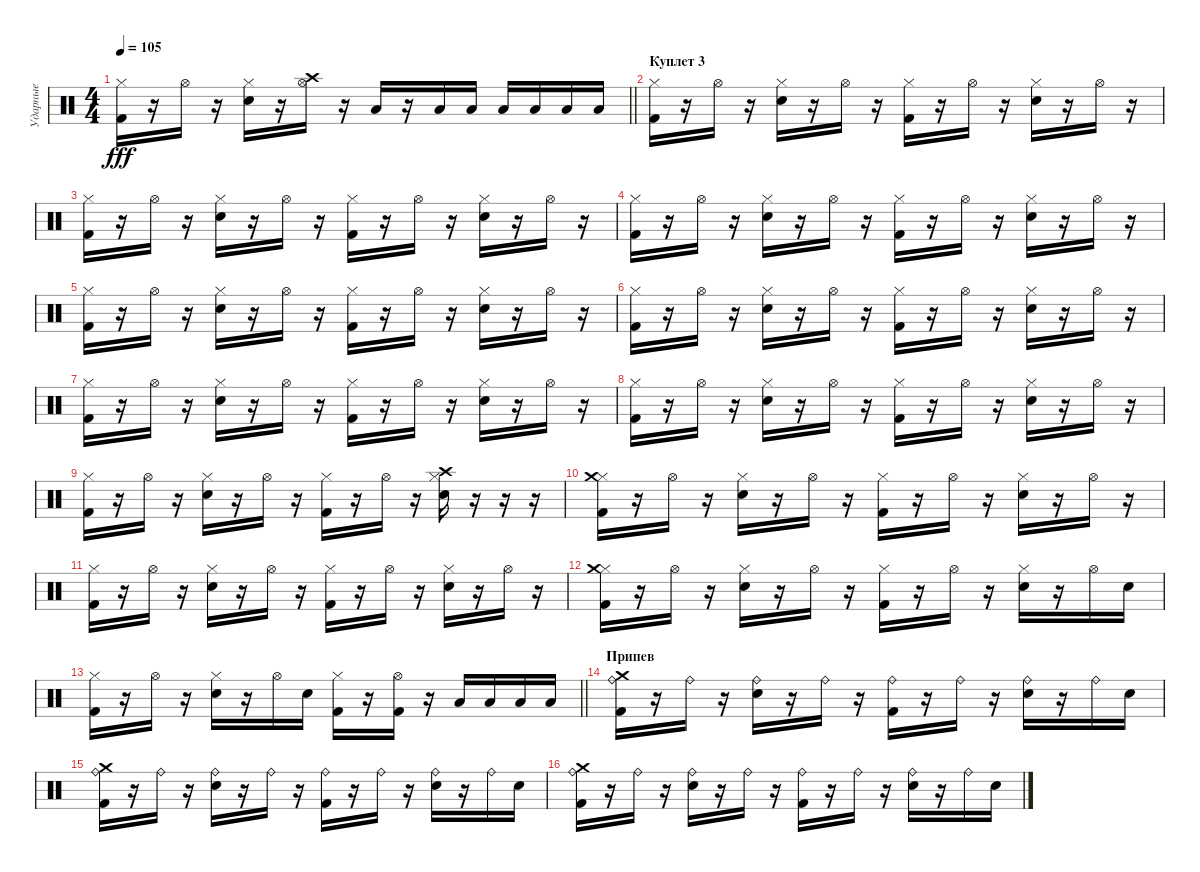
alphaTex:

\track ("Ударные" "Ударные") {instrument percussion}
\staff {score}
\articulation defaults
\ts (4 4)
\tempo 105
\clef neutral
\barLineRight lightlight
\ks c
("Kick (hit) 2" "Hi-Hat (closed)").16{dy fff} r.16 "Hi-Hat (open)".16 r.16 ("Snare (hit) 2" "Hi-Hat (closed)").16 r.16 ("Hi-Hat (open)" "Crash high (hit)").16 r.16 "Low Floor Tom (hit)".16 r.16 "Low Tom (hit)".16 "Low Floor Tom (hit)".16 "Low Tom (hit)".16 "Low Floor Tom (hit)".16 "Low Tom (hit)".16 "Low Floor Tom (hit)".16 |
\section ("" "Куплет 3")
("Kick (hit) 2" "Hi-Hat (closed)").16 r.16 "Hi-Hat (open)".16 r.16 ("Snare (hit) 2" "Hi-Hat (closed)").16 r.16 "Hi-Hat (open)".16 r.16 ("Kick (hit) 2" "Hi-Hat (closed)").16 r.16 "Hi-Hat (open)".16 r.16 ("Snare (hit) 2" "Hi-Hat (closed)").16 r.16 "Hi-Hat (open)".16 r.16 |
("Kick (hit) 2" "Hi-Hat (closed)").16 r.16 "Hi-Hat (open)".16 r.16 ("Snare (hit) 2" "Hi-Hat (closed)").16 r.16 "Hi-Hat (open)".16 r.16 ("Kick (hit) 2" "Hi-Hat (closed)").16 r.16 "Hi-Hat (open)".16 r.16 ("Snare (hit) 2" "Hi-Hat (closed)").16 r.16 "Hi-Hat (open)".16 r.16 |
("Kick (hit) 2" "Hi-Hat (closed)").16 r.16 "Hi-Hat (open)".16 r.16 ("Snare (hit) 2" "Hi-Hat (closed)").16 r.16 "Hi-Hat (open)".16 r.16 ("Kick (hit) 2" "Hi-Hat (closed)").16 r.16 "Hi-Hat (open)".16 r.16 ("Snare (hit) 2" "Hi-Hat (closed)").16 r.16 "Hi-Hat (open)".16 r.16 |
("Kick (hit) 2" "Hi-Hat (closed)").16 r.16 "Hi-Hat (open)".16 r.16 ("Snare (hit) 2" "Hi-Hat (closed)").16 r.16 "Hi-Hat (open)".16 r.16 ("Kick (hit) 2" "Hi-Hat (closed)").16 r.16 "Hi-Hat (open)".16 r.16 ("Snare (hit) 2" "Hi-Hat (closed)").16 r.16 "Hi-Hat (open)".16 r.16 |
("Kick (hit) 2" "Hi-Hat (closed)").16 r.16 "Hi-Hat (open)".16 r.16 ("Snare (hit) 2" "Hi-Hat (closed)").16 r.16 "Hi-Hat (open)".16 r.16 ("Kick (hit) 2" "Hi-Hat (closed)").16 r.16 "Hi-Hat (open)".16 r.16 ("Snare (hit) 2" "Hi-Hat (closed)").16 r.16 "Hi-Hat (open)".16 r.16 |
("Kick (hit) 2" "Hi-Hat (closed)").16 r.16 "Hi-Hat (open)".16 r.16 ("Snare (hit) 2" "Hi-Hat (closed)").16 r.16 "Hi-Hat (open)".16 r.16 ("Kick (hit) 2" "Hi-Hat (closed)").16 r.16 "Hi-Hat (open)".16 r.16 ("Snare (hit) 2" "Hi-Hat (closed)").16 r.16 "Hi-Hat (open)".16 r.16 |
("Kick (hit) 2" "Hi-Hat (closed)").16 r.16 "Hi-Hat (open)".16 r.16 ("Snare (hit) 2" "Hi-Hat (closed)").16 r.16 "Hi-Hat (open)".16 r.16 ("Kick (hit) 2" "Hi-Hat (closed)").16 r.16 "Hi-Hat (open)".16 r.16 ("Snare (hit) 2" "Hi-Hat (closed)").16 r.16 "Hi-Hat (open)".16 r.16 |
("Kick (hit) 2" "Hi-Hat (closed)").16 r.16 "Hi-Hat (open)".16 r.16 ("Snare (hit) 2" "Hi-Hat (closed)").16 r.16 "Hi-Hat (open)".16 r.16 ("Kick (hit) 2" "Hi-Hat (closed)").16 r.16 "Hi-Hat (open)".16 r.16 ("Snare (hit) 2" "Hi-Hat (closed)" "Crash high (hit)").16 r.16 r.16 r.16 |
("Kick (hit) 2" "Hi-Hat (closed)" "Crash medium (hit)").16 r.16 "Hi-Hat (open)".16 r.16 ("Snare (hit) 2" "Hi-Hat (closed)").16 r.16 "Hi-Hat (open)".16 r.16 ("Kick (hit) 2" "Hi-Hat (closed)").16 r.16 "Hi-Hat (open)".16 r.16 ("Snare (hit) 2" "Hi-Hat (closed)").16 r.16 "Hi-Hat (open)".16 r.16 |
("Kick (hit) 2" "Hi-Hat (closed)").16 r.16 "Hi-Hat (open)".16 r.16 ("Snare (hit) 2" "Hi-Hat (closed)").16 r.16 "Hi-Hat (open)".16 r.16 ("Kick (hit) 2" "Hi-Hat (closed)").16 r.16 "Hi-Hat (open)".16 r.16 ("Snare (hit) 2" "Hi-Hat (closed)").16 r.16 "Hi-Hat (open)".16 r.16 |
("Kick (hit) 2" "Hi-Hat (closed)" "Crash medium (hit)").16 r.16 "Hi-Hat (open)".16 r.16 ("Snare (hit) 2" "Hi-Hat (closed)").16 r.16 "Hi-Hat (open)".16 r.16 ("Kick (hit) 2" "Hi-Hat (closed)").16 r.16 "Hi-Hat (open)".16 r.16 ("Snare (hit) 2" "Hi-Hat (closed)").16 r.16 "Hi-Hat (open)".16 "Snare (hit) 2".16 |
\barLineRight lightlight
("Kick (hit) 2" "Hi-Hat (closed)").16 r.16 "Hi-Hat (open)".16 r.16 ("Snare (hit) 2" "Hi-Hat (closed)").16 r.16 "Hi-Hat (open)".16 "Snare (hit) 2".16 ("Kick (hit) 2" "Hi-Hat (closed)").16 r.16 ("Kick (hit) 2" "Hi-Hat (open)").16 r.16 "Low Floor Tom (hit)".16 "Low Floor Tom (hit)".16 "Low Floor Tom (hit)".16 "Low Floor Tom (hit)".16 |
\section ("" "Припев")
("Kick (hit) 2" "Ride (bell)" "Crash medium (hit)").16 r.16 "Ride (bell)".16 r.16 ("Snare (hit) 2" "Ride (bell)").16 r.16 "Ride (bell)".16 r.16 ("Kick (hit) 2" "Ride (bell)").16 r.16 "Ride (bell)".16 r.16 ("Snare (hit) 2" "Ride (bell)").16 r.16 "Ride (bell)".16 "Snare (hit) 2".16 |
("Kick (hit) 2" "Ride (bell)" "Crash medium (hit)").16 r.16 "Ride (bell)".16 r.16 ("Snare (hit) 2" "Ride (bell)").16 r.16 "Ride (bell)".16 r.16 ("Kick (hit) 2" "Ride (bell)").16 r.16 "Ride (bell)".16 r.16 ("Snare (hit) 2" "Ride (bell)").16 r.16 "Ride (bell)".16 "Snare (hit) 2".16 |
("Kick (hit) 2" "Ride (bell)" "Crash medium (hit)").16 r.16 "Ride (bell)".16 r.16 ("Snare (hit) 2" "Ride (bell)").16 r.16 "Ride (bell)".16 r.16 ("Kick (hit) 2" "Ride (bell)").16 r.16 "Ride (bell)".16 r.16 ("Snare (hit) 2" "Ride (bell)").16 r.16 "Ride (bell)".16 "Snare (hit) 2".16
